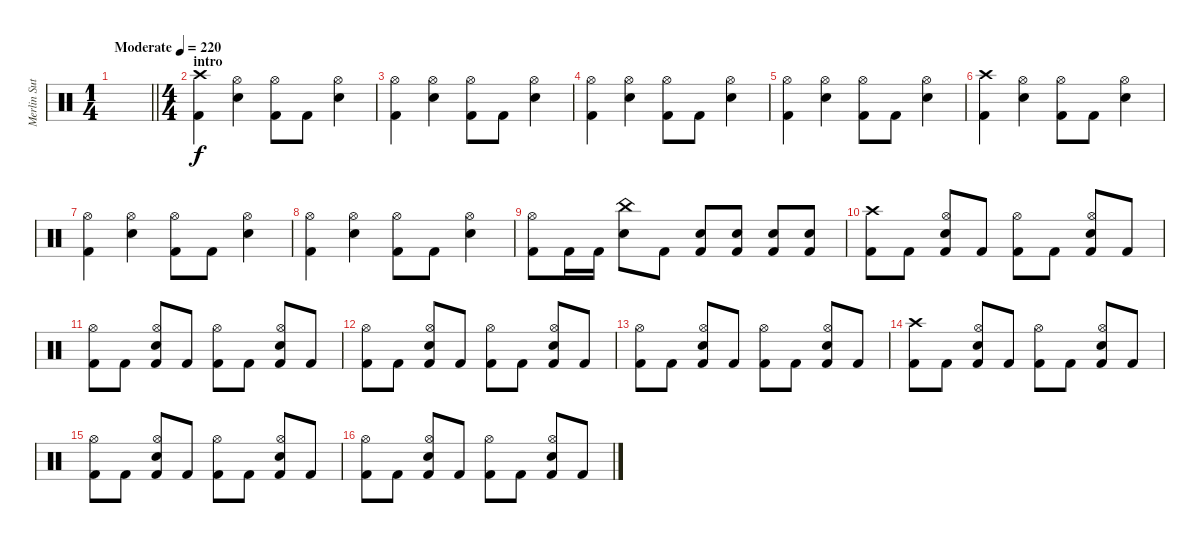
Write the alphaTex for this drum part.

\track ("Merlin Sutter" "Merlin Sut") {instrument percussion}
\staff {score}
\articulation defaults
\ts (1 4)
\tempo (220 "Moderate")
\clef neutral
\barLineRight lightlight
\ks c
|
\ts (4 4)
\section ("" "intro")
("Crash high (hit)" "Kick (hit) 2").4 ("Hi-Hat (open)" "Snare (hit) 2").4 ("Hi-Hat (open)" "Kick (hit) 2").8 "Kick (hit) 2".8 ("Hi-Hat (open)" "Snare (hit) 2").4 |
("Hi-Hat (open)" "Kick (hit) 2").4 ("Hi-Hat (open)" "Snare (hit) 2").4 ("Hi-Hat (open)" "Kick (hit) 2").8 "Kick (hit) 2".8 ("Hi-Hat (open)" "Snare (hit) 2").4 |
("Hi-Hat (open)" "Kick (hit) 2").4 ("Hi-Hat (open)" "Snare (hit) 2").4 ("Hi-Hat (open)" "Kick (hit) 2").8 "Kick (hit) 2".8 ("Hi-Hat (open)" "Snare (hit) 2").4 |
("Hi-Hat (open)" "Kick (hit) 2").4 ("Hi-Hat (open)" "Snare (hit) 2").4 ("Hi-Hat (open)" "Kick (hit) 2").8 "Kick (hit) 2".8 ("Hi-Hat (open)" "Snare (hit) 2").4 |
("Crash high (hit)" "Kick (hit) 2").4 ("Hi-Hat (open)" "Snare (hit) 2").4 ("Hi-Hat (open)" "Kick (hit) 2").8 "Kick (hit) 2".8 ("Hi-Hat (open)" "Snare (hit) 2").4 |
("Hi-Hat (open)" "Kick (hit) 2").4 ("Hi-Hat (open)" "Snare (hit) 2").4 ("Hi-Hat (open)" "Kick (hit) 2").8 "Kick (hit) 2".8 ("Hi-Hat (open)" "Snare (hit) 2").4 |
("Hi-Hat (open)" "Kick (hit) 2").4 ("Hi-Hat (open)" "Snare (hit) 2").4 ("Hi-Hat (open)" "Kick (hit) 2").8 "Kick (hit) 2".8 ("Hi-Hat (open)" "Snare (hit) 2").4 |
("Hi-Hat (open)" "Kick (hit) 2").8 "Kick (hit) 2".16 "Kick (hit) 2".16 ("China (hit)" "Snare (hit) 2").8 "Kick (hit) 2".8 ("Snare (hit) 2" "Kick (hit) 2").8 ("Snare (hit) 2" "Kick (hit) 2").8 ("Snare (hit) 2" "Kick (hit) 2").8 ("Snare (hit) 2" "Kick (hit) 2").8 |
("Crash high (hit)" "Kick (hit) 2").8 "Kick (hit) 2".8 ("Hi-Hat (open)" "Snare (hit) 2" "Kick (hit) 2").8 "Kick (hit) 2".8 ("Hi-Hat (open)" "Kick (hit) 2").8 "Kick (hit) 2".8 ("Hi-Hat (open)" "Snare (hit) 2" "Kick (hit) 2").8 "Kick (hit) 2".8 |
("Hi-Hat (open)" "Kick (hit) 2").8 "Kick (hit) 2".8 ("Hi-Hat (open)" "Snare (hit) 2" "Kick (hit) 2").8 "Kick (hit) 2".8 ("Hi-Hat (open)" "Kick (hit) 2").8 "Kick (hit) 2".8 ("Hi-Hat (open)" "Snare (hit) 2" "Kick (hit) 2").8 "Kick (hit) 2".8 |
("Hi-Hat (open)" "Kick (hit) 2").8 "Kick (hit) 2".8 ("Hi-Hat (open)" "Snare (hit) 2" "Kick (hit) 2").8 "Kick (hit) 2".8 ("Hi-Hat (open)" "Kick (hit) 2").8 "Kick (hit) 2".8 ("Hi-Hat (open)" "Snare (hit) 2" "Kick (hit) 2").8 "Kick (hit) 2".8 |
("Hi-Hat (open)" "Kick (hit) 2").8 "Kick (hit) 2".8 ("Hi-Hat (open)" "Snare (hit) 2" "Kick (hit) 2").8 "Kick (hit) 2".8 ("Hi-Hat (open)" "Kick (hit) 2").8 "Kick (hit) 2".8 ("Hi-Hat (open)" "Snare (hit) 2" "Kick (hit) 2").8 "Kick (hit) 2".8 |
("Crash high (hit)" "Kick (hit) 2").8 "Kick (hit) 2".8 ("Hi-Hat (open)" "Snare (hit) 2" "Kick (hit) 2").8 "Kick (hit) 2".8 ("Hi-Hat (open)" "Kick (hit) 2").8 "Kick (hit) 2".8 ("Hi-Hat (open)" "Snare (hit) 2" "Kick (hit) 2").8 "Kick (hit) 2".8 |
("Hi-Hat (open)" "Kick (hit) 2").8 "Kick (hit) 2".8 ("Hi-Hat (open)" "Snare (hit) 2" "Kick (hit) 2").8 "Kick (hit) 2".8 ("Hi-Hat (open)" "Kick (hit) 2").8 "Kick (hit) 2".8 ("Hi-Hat (open)" "Snare (hit) 2" "Kick (hit) 2").8 "Kick (hit) 2".8 |
("Hi-Hat (open)" "Kick (hit) 2").8 "Kick (hit) 2".8 ("Hi-Hat (open)" "Snare (hit) 2" "Kick (hit) 2").8 "Kick (hit) 2".8 ("Hi-Hat (open)" "Kick (hit) 2").8 "Kick (hit) 2".8 ("Hi-Hat (open)" "Snare (hit) 2" "Kick (hit) 2").8 "Kick (hit) 2".8
